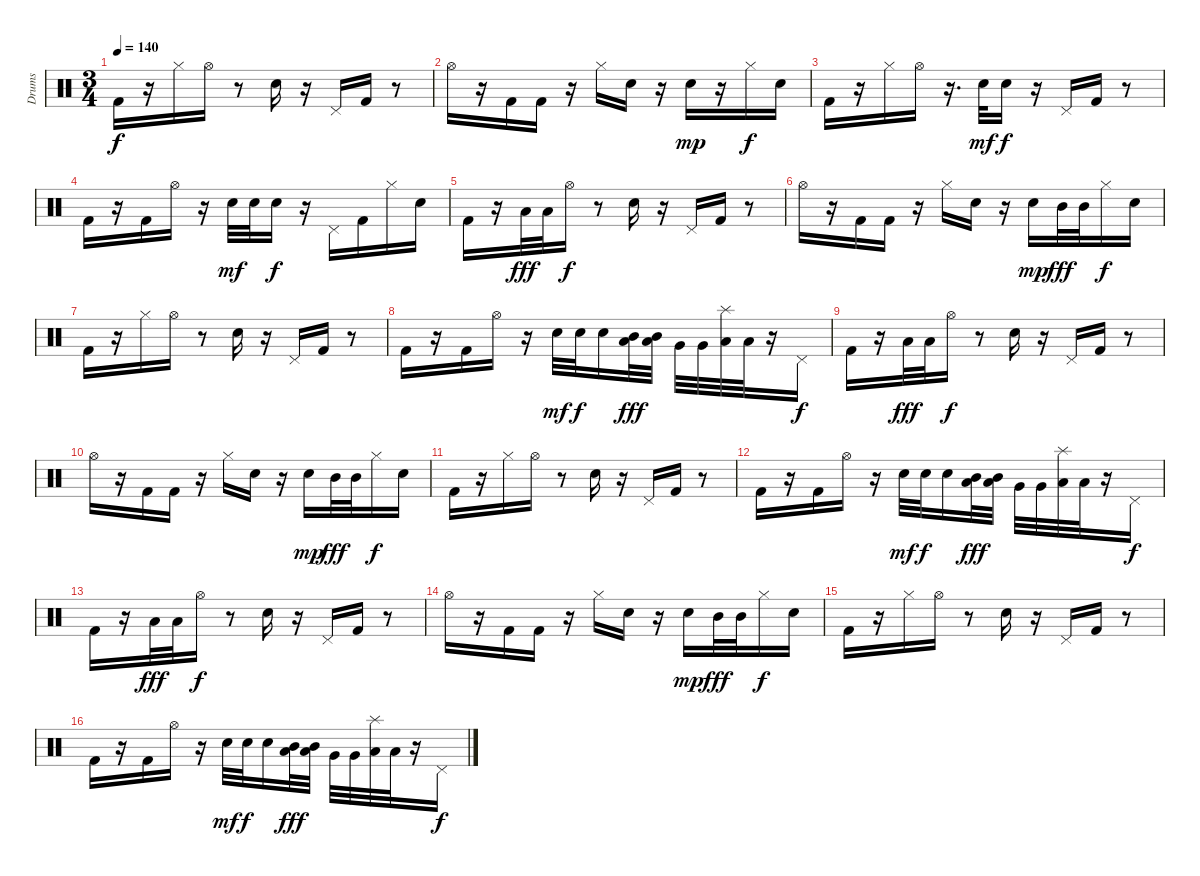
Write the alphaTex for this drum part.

\track ("Drums" "Drums") {instrument percussion}
\staff {score}
\articulation defaults
\ts (3 4)
\tempo 140
\clef neutral
\ks c "Kick (hit) 2".16{dy f}
r.16 "Hi-Hat (closed)".16 "Hi-Hat (open)".16 r.8 "Electric Snare (hit)".16 r.16 "Pedal Hi-Hat (hit)".16 "Kick (hit) 2".16 r.8 |
"Hi-Hat (open)".16 r.16 "Kick (hit) 2".16 "Kick (hit) 2".16 r.16 "Hi-Hat (closed)".16 "Electric Snare (hit)".16 r.16 "Electric Snare (hit)".16{dy mp} r.16 "Hi-Hat (closed)".16{dy f} "Electric Snare (hit)".16 |
"Kick (hit) 2".16 r.16 "Hi-Hat (closed)".16 "Hi-Hat (open)".16 r.16{d} "Electric Snare (hit)".32{dy mf} "Electric Snare (hit)".16{dy f} r.16 "Pedal Hi-Hat (hit)".16 "Kick (hit) 2".16 r.8 |
"Kick (hit) 2".16 r.16 "Kick (hit) 2".16 "Hi-Hat (open)".16 r.16 "Electric Snare (hit)".32{dy mf} "Electric Snare (hit)".32 "Electric Snare (hit)".16{dy f} r.16 "Pedal Hi-Hat (hit)".16 "Kick (hit) 2".16 "Hi-Hat (closed)".16 "Electric Snare (hit)".16 |
"Kick (hit) 2".16 r.16 "Low Tom (hit)".32{dy fff} "Low Tom (hit)".32 "Hi-Hat (open)".16{dy f} r.8 "Electric Snare (hit)".16 r.16 "Pedal Hi-Hat (hit)".16 "Kick (hit) 2".16 r.8 |
"Hi-Hat (open)".16 r.16 "Kick (hit) 2".16 "Kick (hit) 2".16 r.16 "Hi-Hat (closed)".16 "Electric Snare (hit)".16 r.16 "Electric Snare (hit)".16{dy mp} "Mid Tom (hit)".32{dy fff} "Mid Tom (hit)".32 "Hi-Hat (closed)".16{dy f} "Electric Snare (hit)".16 |
"Kick (hit) 2".16 r.16 "Hi-Hat (closed)".16 "Hi-Hat (open)".16 r.8 "Electric Snare (hit)".16 r.16 "Pedal Hi-Hat (hit)".16 "Kick (hit) 2".16 r.8 |
"Kick (hit) 2".16 r.16 "Kick (hit) 2".16 "Hi-Hat (open)".16 r.16 "Electric Snare (hit)".32{dy mf} "Electric Snare (hit)".32{dy f} "Electric Snare (hit)".16 ("Mid Tom (hit)" "Low Tom (hit)").32{dy fff} ("Mid Tom (hit)" "Low Tom (hit)").32 "Very Low Tom (hit)".32 "Very Low Tom (hit)".32 ("Splash (hit)" "Low Floor Tom (hit)").32 "Low Floor Tom (hit)".32 r.16 "Pedal Hi-Hat (hit)".16{dy f} |
"Kick (hit) 2".16 r.16 "Low Tom (hit)".32{dy fff} "Low Tom (hit)".32 "Hi-Hat (open)".16{dy f} r.8 "Electric Snare (hit)".16 r.16 "Pedal Hi-Hat (hit)".16 "Kick (hit) 2".16 r.8 |
"Hi-Hat (open)".16 r.16 "Kick (hit) 2".16 "Kick (hit) 2".16 r.16 "Hi-Hat (closed)".16 "Electric Snare (hit)".16 r.16 "Electric Snare (hit)".16{dy mp} "Mid Tom (hit)".32{dy fff} "Mid Tom (hit)".32 "Hi-Hat (closed)".16{dy f} "Electric Snare (hit)".16 |
"Kick (hit) 2".16 r.16 "Hi-Hat (closed)".16 "Hi-Hat (open)".16 r.8 "Electric Snare (hit)".16 r.16 "Pedal Hi-Hat (hit)".16 "Kick (hit) 2".16 r.8 |
"Kick (hit) 2".16 r.16 "Kick (hit) 2".16 "Hi-Hat (open)".16 r.16 "Electric Snare (hit)".32{dy mf} "Electric Snare (hit)".32{dy f} "Electric Snare (hit)".16 ("Mid Tom (hit)" "Low Tom (hit)").32{dy fff} ("Mid Tom (hit)" "Low Tom (hit)").32 "Very Low Tom (hit)".32 "Very Low Tom (hit)".32 ("Splash (hit)" "Low Floor Tom (hit)").32 "Low Floor Tom (hit)".32 r.16 "Pedal Hi-Hat (hit)".16{dy f} |
"Kick (hit) 2".16 r.16 "Low Tom (hit)".32{dy fff} "Low Tom (hit)".32 "Hi-Hat (open)".16{dy f} r.8 "Electric Snare (hit)".16 r.16 "Pedal Hi-Hat (hit)".16 "Kick (hit) 2".16 r.8 |
"Hi-Hat (open)".16 r.16 "Kick (hit) 2".16 "Kick (hit) 2".16 r.16 "Hi-Hat (closed)".16 "Electric Snare (hit)".16 r.16 "Electric Snare (hit)".16{dy mp} "Mid Tom (hit)".32{dy fff} "Mid Tom (hit)".32 "Hi-Hat (closed)".16{dy f} "Electric Snare (hit)".16 |
"Kick (hit) 2".16 r.16 "Hi-Hat (closed)".16 "Hi-Hat (open)".16 r.8 "Electric Snare (hit)".16 r.16 "Pedal Hi-Hat (hit)".16 "Kick (hit) 2".16 r.8 |
"Kick (hit) 2".16 r.16 "Kick (hit) 2".16 "Hi-Hat (open)".16 r.16 "Electric Snare (hit)".32{dy mf} "Electric Snare (hit)".32{dy f} "Electric Snare (hit)".16 ("Mid Tom (hit)" "Low Tom (hit)").32{dy fff} ("Mid Tom (hit)" "Low Tom (hit)").32 "Very Low Tom (hit)".32 "Very Low Tom (hit)".32 ("Splash (hit)" "Low Floor Tom (hit)").32 "Low Floor Tom (hit)".32 r.16 "Pedal Hi-Hat (hit)".16{dy f}
